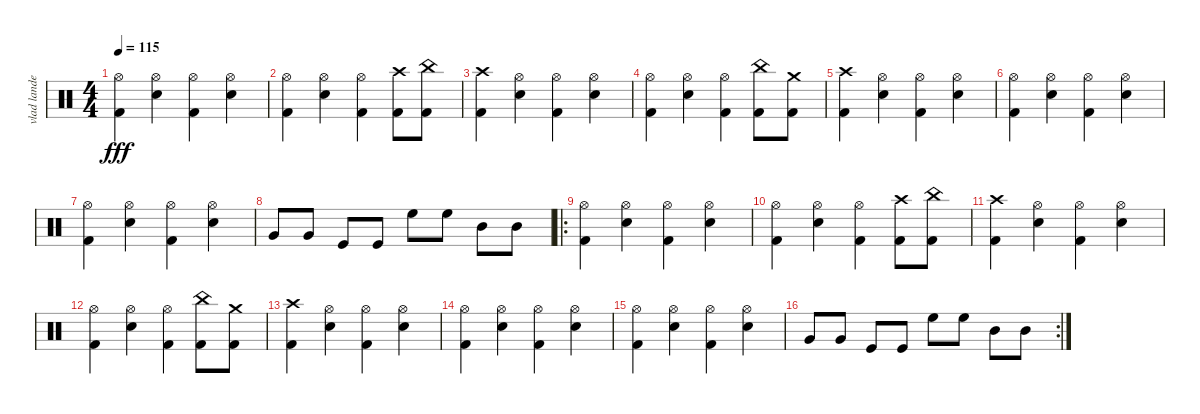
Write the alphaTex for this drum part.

\track ("vlad landeros" "vlad lande") {instrument percussion}
\staff {score}
\articulation defaults
\ts (4 4)
\tempo 115
\clef neutral
\ks c
("Hi-Hat (open)" "Kick (hit) 2").4{dy fff} ("Hi-Hat (open)" "Electric Snare (hit)").4 ("Hi-Hat (open)" "Kick (hit) 2").4 ("Hi-Hat (open)" "Electric Snare (hit)").4 |
("Hi-Hat (open)" "Kick (hit) 2").4 ("Hi-Hat (open)" "Electric Snare (hit)").4 ("Hi-Hat (open)" "Kick (hit) 2").4 ("Crash high (hit)" "Kick (hit) 2").8 ("China (hit)" "Kick (hit) 2").8 |
("Crash high (hit)" "Kick (hit) 2").4 ("Hi-Hat (open)" "Electric Snare (hit)").4 ("Hi-Hat (open)" "Kick (hit) 2").4 ("Hi-Hat (open)" "Electric Snare (hit)").4 |
("Hi-Hat (open)" "Kick (hit) 2").4 ("Hi-Hat (open)" "Electric Snare (hit)").4 ("Hi-Hat (open)" "Kick (hit) 2").4 ("China (hit)" "Kick (hit) 2").8 ("Crash medium (hit)" "Kick (hit) 2").8 |
("Crash high (hit)" "Kick (hit) 2").4 ("Hi-Hat (open)" "Electric Snare (hit)").4 ("Hi-Hat (open)" "Kick (hit) 2").4 ("Hi-Hat (open)" "Electric Snare (hit)").4 |
("Hi-Hat (open)" "Kick (hit) 2").4 ("Hi-Hat (open)" "Electric Snare (hit)").4 ("Hi-Hat (open)" "Kick (hit) 2").4 ("Hi-Hat (open)" "Electric Snare (hit)").4 |
("Hi-Hat (open)" "Kick (hit) 2").4 ("Hi-Hat (open)" "Electric Snare (hit)").4 ("Hi-Hat (open)" "Kick (hit) 2").4 ("Hi-Hat (open)" "Electric Snare (hit)").4 |
"Very Low Tom (hit)".8 "Very Low Tom (hit)".8 "Kick (hit)".8 "Kick (hit)".8 "High Floor Tom (hit)".8 "High Floor Tom (hit)".8 "Mid Tom (hit)".8 "Mid Tom (hit)".8 |
\ro
("Hi-Hat (open)" "Kick (hit) 2").4 ("Hi-Hat (open)" "Electric Snare (hit)").4 ("Hi-Hat (open)" "Kick (hit) 2").4 ("Hi-Hat (open)" "Electric Snare (hit)").4 |
("Hi-Hat (open)" "Kick (hit) 2").4 ("Hi-Hat (open)" "Electric Snare (hit)").4 ("Hi-Hat (open)" "Kick (hit) 2").4 ("Crash high (hit)" "Kick (hit) 2").8 ("China (hit)" "Kick (hit) 2").8 |
("Crash high (hit)" "Kick (hit) 2").4 ("Hi-Hat (open)" "Electric Snare (hit)").4 ("Hi-Hat (open)" "Kick (hit) 2").4 ("Hi-Hat (open)" "Electric Snare (hit)").4 |
("Hi-Hat (open)" "Kick (hit) 2").4 ("Hi-Hat (open)" "Electric Snare (hit)").4 ("Hi-Hat (open)" "Kick (hit) 2").4 ("China (hit)" "Kick (hit) 2").8 ("Crash medium (hit)" "Kick (hit) 2").8 |
("Crash high (hit)" "Kick (hit) 2").4 ("Hi-Hat (open)" "Electric Snare (hit)").4 ("Hi-Hat (open)" "Kick (hit) 2").4 ("Hi-Hat (open)" "Electric Snare (hit)").4 |
("Hi-Hat (open)" "Kick (hit) 2").4 ("Hi-Hat (open)" "Electric Snare (hit)").4 ("Hi-Hat (open)" "Kick (hit) 2").4 ("Hi-Hat (open)" "Electric Snare (hit)").4 |
("Hi-Hat (open)" "Kick (hit) 2").4 ("Hi-Hat (open)" "Electric Snare (hit)").4 ("Hi-Hat (open)" "Kick (hit) 2").4 ("Hi-Hat (open)" "Electric Snare (hit)").4 |
\rc 2 "Very Low Tom (hit)".8 "Very Low Tom (hit)".8 "Kick (hit)".8 "Kick (hit)".8 "High Floor Tom (hit)".8 "High Floor Tom (hit)".8 "Mid Tom (hit)".8 "Mid Tom (hit)".8
